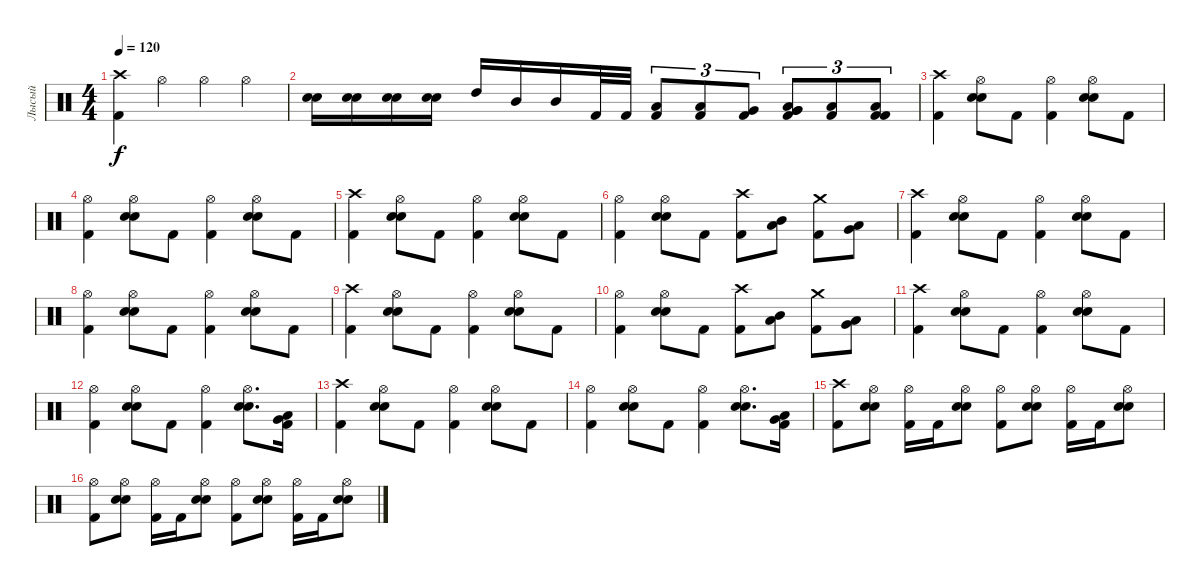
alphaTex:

\track ("Лысый" "Лысый") {instrument percussion}
\staff {score}
\articulation defaults
\ts (4 4)
\tempo 120
\clef neutral
\ks c
("Kick (hit) 2" "Crash high (hit)").4{dy f} "Hi-Hat (open)".4 "Hi-Hat (open)".4 "Hi-Hat (open)".4 |
("Snare (hit) 2" "Electric Snare (hit)").16 ("Snare (hit) 2" "Electric Snare (hit)").16 ("Snare (hit) 2" "Electric Snare (hit)").16 ("Snare (hit) 2" "Electric Snare (hit)").16 "High Tom (hit)".16 "Mid Tom (hit)".16 "Mid Tom (hit)".16 "Kick (hit) 2".32 "Kick (hit) 2".32 ("Low Tom (hit)" "Kick (hit) 2").8{tu (3 2)} ("Low Tom (hit)" "Kick (hit) 2").8{tu (3 2)} ("Very Low Tom (hit)" "Kick (hit) 2").8{tu (3 2)} ("Very Low Tom (hit)" "Very Low Tom (hit)" "Low Floor Tom (hit)" "Kick (hit) 2").8{tu (3 2)} ("Low Floor Tom (hit)" "Kick (hit) 2").8{tu (3 2)} ("Low Floor Tom (hit)" "Kick (hit) 2" "Kick (hit) 2").8{tu (3 2)} |
("Kick (hit) 2" "Crash high (hit)").4 ("Hi-Hat (open)" "Snare (hit) 2" "Electric Snare (hit)").8 "Kick (hit) 2".8 ("Kick (hit) 2" "Hi-Hat (open)").4 ("Hi-Hat (open)" "Snare (hit) 2" "Electric Snare (hit)").8 "Kick (hit) 2".8 |
("Kick (hit) 2" "Hi-Hat (open)").4 ("Hi-Hat (open)" "Snare (hit) 2" "Electric Snare (hit)").8 "Kick (hit) 2".8 ("Kick (hit) 2" "Hi-Hat (open)").4 ("Hi-Hat (open)" "Snare (hit) 2" "Electric Snare (hit)").8 "Kick (hit) 2".8 |
("Kick (hit) 2" "Crash high (hit)").4 ("Hi-Hat (open)" "Snare (hit) 2" "Electric Snare (hit)").8 "Kick (hit) 2".8 ("Kick (hit) 2" "Hi-Hat (open)").4 ("Hi-Hat (open)" "Snare (hit) 2" "Electric Snare (hit)").8 "Kick (hit) 2".8 |
("Kick (hit) 2" "Hi-Hat (open)").4 ("Hi-Hat (open)" "Snare (hit) 2" "Electric Snare (hit)").8 "Kick (hit) 2".8 ("Kick (hit) 2" "Crash high (hit)").8 ("Mid Tom (hit)" "Low Tom (hit)").8 ("Kick (hit) 2" "Crash medium (hit)").8 ("Very Low Tom (hit)" "Low Floor Tom (hit)").8 |
("Kick (hit) 2" "Crash high (hit)").4 ("Hi-Hat (open)" "Snare (hit) 2" "Electric Snare (hit)").8 "Kick (hit) 2".8 ("Kick (hit) 2" "Hi-Hat (open)").4 ("Hi-Hat (open)" "Snare (hit) 2" "Electric Snare (hit)").8 "Kick (hit) 2".8 |
("Kick (hit) 2" "Hi-Hat (open)").4 ("Hi-Hat (open)" "Snare (hit) 2" "Electric Snare (hit)").8 "Kick (hit) 2".8 ("Kick (hit) 2" "Hi-Hat (open)").4 ("Hi-Hat (open)" "Snare (hit) 2" "Electric Snare (hit)").8 "Kick (hit) 2".8 |
("Kick (hit) 2" "Crash high (hit)").4 ("Hi-Hat (open)" "Snare (hit) 2" "Electric Snare (hit)").8 "Kick (hit) 2".8 ("Kick (hit) 2" "Hi-Hat (open)").4 ("Hi-Hat (open)" "Snare (hit) 2" "Electric Snare (hit)").8 "Kick (hit) 2".8 |
("Kick (hit) 2" "Hi-Hat (open)").4 ("Hi-Hat (open)" "Snare (hit) 2" "Electric Snare (hit)").8 "Kick (hit) 2".8 ("Kick (hit) 2" "Crash high (hit)").8 ("Mid Tom (hit)" "Low Tom (hit)").8 ("Kick (hit) 2" "Crash medium (hit)").8 ("Very Low Tom (hit)" "Low Floor Tom (hit)").8 |
("Kick (hit) 2" "Crash high (hit)").4 ("Hi-Hat (open)" "Snare (hit) 2" "Electric Snare (hit)").8 "Kick (hit) 2".8 ("Kick (hit) 2" "Hi-Hat (open)").4 ("Hi-Hat (open)" "Snare (hit) 2" "Electric Snare (hit)").8 "Kick (hit) 2".8 |
("Kick (hit) 2" "Hi-Hat (open)").4 ("Hi-Hat (open)" "Snare (hit) 2" "Electric Snare (hit)").8 "Kick (hit) 2".8 ("Kick (hit) 2" "Hi-Hat (open)").4 ("Hi-Hat (open)" "Snare (hit) 2" "Electric Snare (hit)").8{d} ("Low Tom (hit)" "Very Low Tom (hit)" "Kick (hit) 2").16 |
("Kick (hit) 2" "Crash high (hit)").4 ("Hi-Hat (open)" "Snare (hit) 2" "Electric Snare (hit)").8 "Kick (hit) 2".8 ("Kick (hit) 2" "Hi-Hat (open)").4 ("Hi-Hat (open)" "Snare (hit) 2" "Electric Snare (hit)").8 "Kick (hit) 2".8 |
("Kick (hit) 2" "Hi-Hat (open)").4 ("Hi-Hat (open)" "Snare (hit) 2" "Electric Snare (hit)").8 "Kick (hit) 2".8 ("Kick (hit) 2" "Hi-Hat (open)").4 ("Hi-Hat (open)" "Snare (hit) 2" "Electric Snare (hit)").8{d} ("Low Tom (hit)" "Very Low Tom (hit)" "Kick (hit) 2").16 |
("Kick (hit) 2" "Crash high (hit)").8 ("Snare (hit) 2" "Electric Snare (hit)" "Hi-Hat (open)").8 ("Kick (hit) 2" "Hi-Hat (open)").16 "Kick (hit) 2".16 ("Snare (hit) 2" "Electric Snare (hit)" "Hi-Hat (open)").8 ("Kick (hit) 2" "Hi-Hat (open)").8 ("Snare (hit) 2" "Electric Snare (hit)" "Hi-Hat (open)").8 ("Kick (hit) 2" "Hi-Hat (open)").16 "Kick (hit) 2".16 ("Snare (hit) 2" "Electric Snare (hit)" "Hi-Hat (open)").8 |
("Kick (hit) 2" "Hi-Hat (open)").8 ("Snare (hit) 2" "Electric Snare (hit)" "Hi-Hat (open)").8 ("Kick (hit) 2" "Hi-Hat (open)").16 "Kick (hit) 2".16 ("Snare (hit) 2" "Electric Snare (hit)" "Hi-Hat (open)").8 ("Kick (hit) 2" "Hi-Hat (open)").8 ("Snare (hit) 2" "Electric Snare (hit)" "Hi-Hat (open)").8 ("Kick (hit) 2" "Hi-Hat (open)").16 "Kick (hit) 2".16 ("Snare (hit) 2" "Electric Snare (hit)" "Hi-Hat (open)").8
